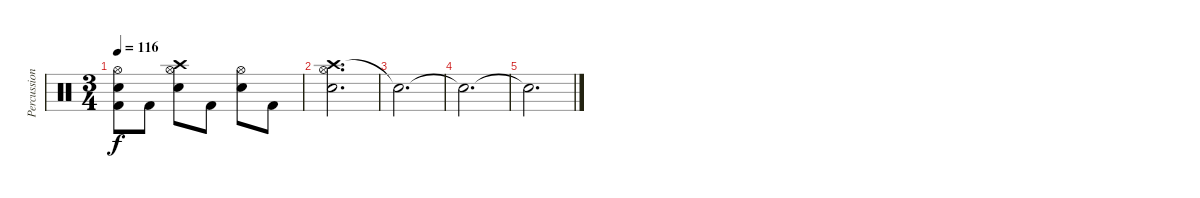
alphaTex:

\track ("Percussion" "Percussion") {instrument percussion}
\staff {score}
\articulation defaults
\ts (3 4)
\tempo 116
\clef neutral
\ks c
("Hi-Hat (open)" "Electric Snare (hit)" "Kick (hit) 2").8{dy f} "Kick (hit) 2".8 ("Crash high (hit)" "Hi-Hat (open)" "Electric Snare (hit)").8 "Kick (hit) 2".8 ("Hi-Hat (open)" "Electric Snare (hit)").8 "Kick (hit) 2".8 |
("Crash high (hit)" "Hi-Hat (open)" "Electric Snare (hit)").2{d} |
"Snare (hit)"{t}.2{d} |
"Snare (hit)"{t}.2{d} |
"Snare (hit)"{t}.2{d}
